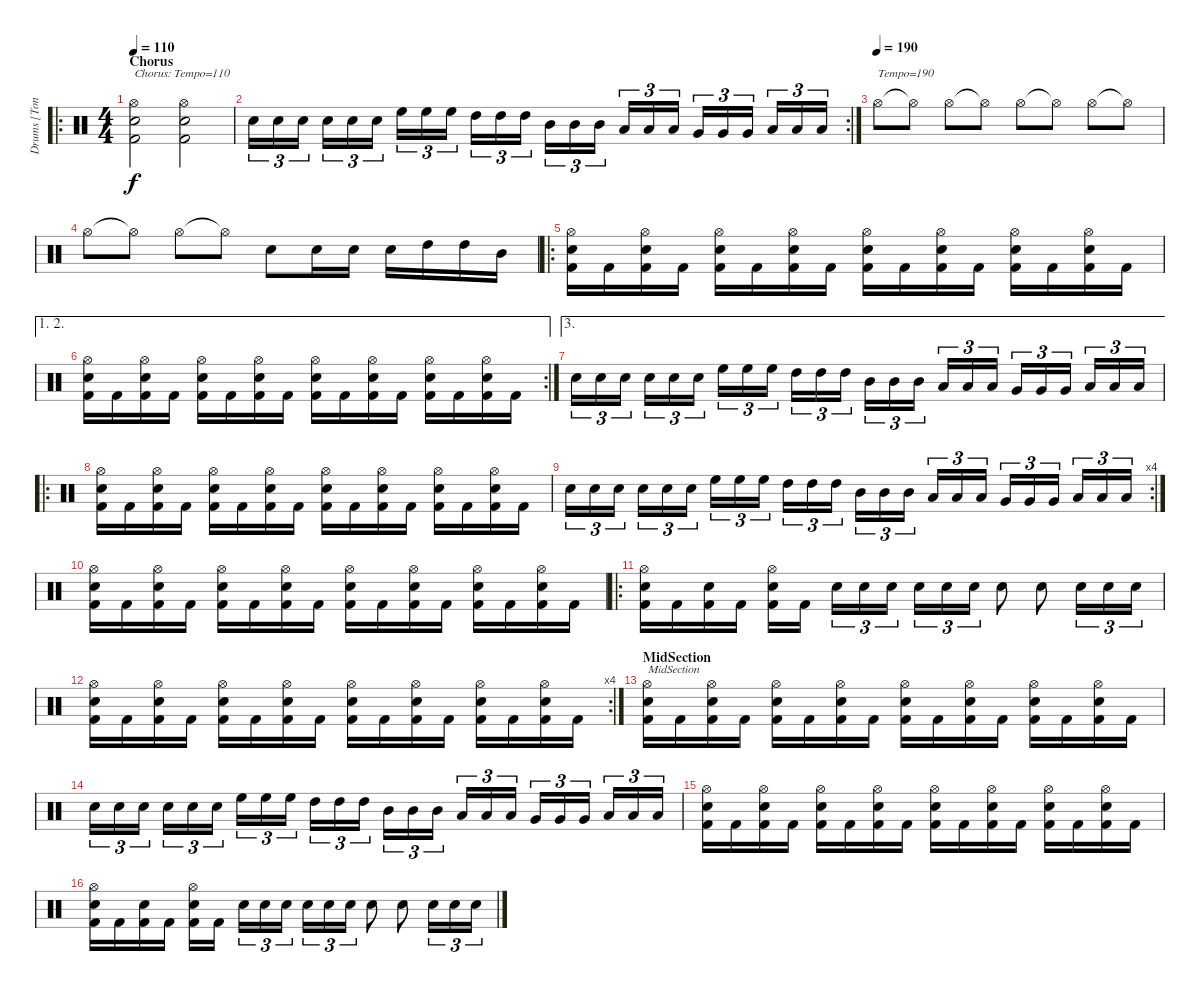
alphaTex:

\track ("Drums [Tony Laureano]" "Drums [Ton") {instrument percussion}
\staff {score}
\articulation defaults
\ro
\ts (4 4)
\section ("" "Chorus")
\tempo 110
\clef neutral
\ks c
("Hi-Hat (open)" "Electric Snare (hit)" "Kick (hit) 2").2{txt "Chorus: Tempo=110" dy f} ("Hi-Hat (open)" "Electric Snare (hit)" "Kick (hit) 2").2 |
\rc 2 "Electric Snare (hit)".16{tu (3 2)} "Electric Snare (hit)".16{tu (3 2)} "Electric Snare (hit)".16{tu (3 2)} "Electric Snare (hit)".16{tu (3 2)} "Electric Snare (hit)".16{tu (3 2)} "Electric Snare (hit)".16{tu (3 2)} "High Floor Tom (hit)".16{tu (3 2)} "High Floor Tom (hit)".16{tu (3 2)} "High Floor Tom (hit)".16{tu (3 2)} "High Tom (hit)".16{tu (3 2)} "High Tom (hit)".16{tu (3 2)} "High Tom (hit)".16{tu (3 2)} "Mid Tom (hit)".16{tu (3 2)} "Mid Tom (hit)".16{tu (3 2)} "Mid Tom (hit)".16{tu (3 2)} "Low Tom (hit)".16{tu (3 2)} "Low Tom (hit)".16{tu (3 2)} "Low Tom (hit)".16{tu (3 2)} "Very Low Tom (hit)".16{tu (3 2)} "Very Low Tom (hit)".16{tu (3 2)} "Very Low Tom (hit)".16{tu (3 2)} "Low Floor Tom (hit)".16{tu (3 2)} "Low Floor Tom (hit)".16{tu (3 2)} "Low Floor Tom (hit)".16{tu (3 2)}
|
\tempo (190)
"Hi-Hat (open)".8{txt "Tempo=190"} "Hi-Hat (open)"{t}.8 "Hi-Hat (open)".8 "Hi-Hat (open)"{t}.8 "Hi-Hat (open)".8 "Hi-Hat (open)"{t}.8 "Hi-Hat (open)".8 "Hi-Hat (open)"{t}.8 |
"Hi-Hat (open)".8 "Hi-Hat (open)"{t}.8 "Hi-Hat (open)".8 "Hi-Hat (open)"{t}.8 "Electric Snare (hit)".8 "Electric Snare (hit)".16 "Electric Snare (hit)".16 "Electric Snare (hit)".16 "High Tom (hit)".16 "High Tom (hit)".16 "Mid Tom (hit)".16 |
\ro
("Hi-Hat (open)" "Electric Snare (hit)" "Kick (hit) 2").16 "Kick (hit) 2".16 ("Hi-Hat (open)" "Electric Snare (hit)" "Kick (hit) 2").16 "Kick (hit) 2".16 ("Hi-Hat (open)" "Electric Snare (hit)" "Kick (hit) 2").16 "Kick (hit) 2".16 ("Hi-Hat (open)" "Electric Snare (hit)" "Kick (hit) 2").16 "Kick (hit) 2".16 ("Hi-Hat (open)" "Electric Snare (hit)" "Kick (hit) 2").16 "Kick (hit) 2".16 ("Hi-Hat (open)" "Electric Snare (hit)" "Kick (hit) 2").16 "Kick (hit) 2".16 ("Hi-Hat (open)" "Electric Snare (hit)" "Kick (hit) 2").16 "Kick (hit) 2".16 ("Hi-Hat (open)" "Electric Snare (hit)" "Kick (hit) 2").16 "Kick (hit) 2".16 |
\ae (1 2)
\rc 2
("Hi-Hat (open)" "Electric Snare (hit)" "Kick (hit) 2").16 "Kick (hit) 2".16 ("Hi-Hat (open)" "Electric Snare (hit)" "Kick (hit) 2").16 "Kick (hit) 2".16 ("Hi-Hat (open)" "Electric Snare (hit)" "Kick (hit) 2").16 "Kick (hit) 2".16 ("Hi-Hat (open)" "Electric Snare (hit)" "Kick (hit) 2").16 "Kick (hit) 2".16 ("Hi-Hat (open)" "Electric Snare (hit)" "Kick (hit) 2").16 "Kick (hit) 2".16 ("Hi-Hat (open)" "Electric Snare (hit)" "Kick (hit) 2").16 "Kick (hit) 2".16 ("Hi-Hat (open)" "Electric Snare (hit)" "Kick (hit) 2").16 "Kick (hit) 2".16 ("Hi-Hat (open)" "Electric Snare (hit)" "Kick (hit) 2").16 "Kick (hit) 2".16 |
\ae 3 "Electric Snare (hit)".16{tu (3 2)} "Electric Snare (hit)".16{tu (3 2)} "Electric Snare (hit)".16{tu (3 2)} "Electric Snare (hit)".16{tu (3 2)} "Electric Snare (hit)".16{tu (3 2)} "Electric Snare (hit)".16{tu (3 2)} "High Floor Tom (hit)".16{tu (3 2)} "High Floor Tom (hit)".16{tu (3 2)} "High Floor Tom (hit)".16{tu (3 2)} "High Tom (hit)".16{tu (3 2)} "High Tom (hit)".16{tu (3 2)} "High Tom (hit)".16{tu (3 2)} "Mid Tom (hit)".16{tu (3 2)} "Mid Tom (hit)".16{tu (3 2)} "Mid Tom (hit)".16{tu (3 2)} "Low Tom (hit)".16{tu (3 2)} "Low Tom (hit)".16{tu (3 2)} "Low Tom (hit)".16{tu (3 2)} "Very Low Tom (hit)".16{tu (3 2)} "Very Low Tom (hit)".16{tu (3 2)} "Very Low Tom (hit)".16{tu (3 2)} "Low Floor Tom (hit)".16{tu (3 2)} "Low Floor Tom (hit)".16{tu (3 2)} "Low Floor Tom (hit)".16{tu (3 2)}
|
\ro
("Hi-Hat (open)" "Electric Snare (hit)" "Kick (hit) 2").16 "Kick (hit) 2".16 ("Hi-Hat (open)" "Electric Snare (hit)" "Kick (hit) 2").16 "Kick (hit) 2".16 ("Hi-Hat (open)" "Electric Snare (hit)" "Kick (hit) 2").16 "Kick (hit) 2".16 ("Hi-Hat (open)" "Electric Snare (hit)" "Kick (hit) 2").16 "Kick (hit) 2".16 ("Hi-Hat (open)" "Electric Snare (hit)" "Kick (hit) 2").16 "Kick (hit) 2".16 ("Hi-Hat (open)" "Electric Snare (hit)" "Kick (hit) 2").16 "Kick (hit) 2".16 ("Hi-Hat (open)" "Electric Snare (hit)" "Kick (hit) 2").16 "Kick (hit) 2".16 ("Hi-Hat (open)" "Electric Snare (hit)" "Kick (hit) 2").16 "Kick (hit) 2".16 |
\rc 4 "Electric Snare (hit)".16{tu (3 2)} "Electric Snare (hit)".16{tu (3 2)} "Electric Snare (hit)".16{tu (3 2)} "Electric Snare (hit)".16{tu (3 2)} "Electric Snare (hit)".16{tu (3 2)} "Electric Snare (hit)".16{tu (3 2)} "High Floor Tom (hit)".16{tu (3 2)} "High Floor Tom (hit)".16{tu (3 2)} "High Floor Tom (hit)".16{tu (3 2)} "High Tom (hit)".16{tu (3 2)} "High Tom (hit)".16{tu (3 2)} "High Tom (hit)".16{tu (3 2)} "Mid Tom (hit)".16{tu (3 2)} "Mid Tom (hit)".16{tu (3 2)} "Mid Tom (hit)".16{tu (3 2)} "Low Tom (hit)".16{tu (3 2)} "Low Tom (hit)".16{tu (3 2)} "Low Tom (hit)".16{tu (3 2)} "Very Low Tom (hit)".16{tu (3 2)} "Very Low Tom (hit)".16{tu (3 2)} "Very Low Tom (hit)".16{tu (3 2)} "Low Floor Tom (hit)".16{tu (3 2)} "Low Floor Tom (hit)".16{tu (3 2)} "Low Floor Tom (hit)".16{tu (3 2)}
|
("Hi-Hat (open)" "Electric Snare (hit)" "Kick (hit) 2").16 "Kick (hit) 2".16 ("Hi-Hat (open)" "Electric Snare (hit)" "Kick (hit) 2").16 "Kick (hit) 2".16 ("Hi-Hat (open)" "Electric Snare (hit)" "Kick (hit) 2").16 "Kick (hit) 2".16 ("Hi-Hat (open)" "Electric Snare (hit)" "Kick (hit) 2").16 "Kick (hit) 2".16 ("Hi-Hat (open)" "Electric Snare (hit)" "Kick (hit) 2").16 "Kick (hit) 2".16 ("Hi-Hat (open)" "Electric Snare (hit)" "Kick (hit) 2").16 "Kick (hit) 2".16 ("Hi-Hat (open)" "Electric Snare (hit)" "Kick (hit) 2").16 "Kick (hit) 2".16 ("Hi-Hat (open)" "Electric Snare (hit)" "Kick (hit) 2").16 "Kick (hit) 2".16 |
\ro
("Hi-Hat (open)" "Electric Snare (hit)" "Kick (hit) 2").16 "Kick (hit) 2".16 ("Electric Snare (hit)" "Kick (hit) 2").16 "Kick (hit) 2".16 ("Hi-Hat (open)" "Electric Snare (hit)" "Kick (hit) 2").16 "Kick (hit) 2".16 "Electric Snare (hit)".16{tu (3 2)} "Electric Snare (hit)".16{tu (3 2)} "Electric Snare (hit)".16{tu (3 2)} "Electric Snare (hit)".16{tu (3 2)} "Electric Snare (hit)".16{tu (3 2)} "Electric Snare (hit)".16{tu (3 2)} "Electric Snare (hit)".8 "Electric Snare (hit)".8 "Electric Snare (hit)".16{tu (3 2)} "Electric Snare (hit)".16{tu (3 2)} "Electric Snare (hit)".16{tu (3 2)} |
\rc 4
("Hi-Hat (open)" "Electric Snare (hit)" "Kick (hit) 2").16 "Kick (hit) 2".16 ("Hi-Hat (open)" "Electric Snare (hit)" "Kick (hit) 2").16 "Kick (hit) 2".16 ("Hi-Hat (open)" "Electric Snare (hit)" "Kick (hit) 2").16 "Kick (hit) 2".16 ("Hi-Hat (open)" "Electric Snare (hit)" "Kick (hit) 2").16 "Kick (hit) 2".16 ("Hi-Hat (open)" "Electric Snare (hit)" "Kick (hit) 2").16 "Kick (hit) 2".16 ("Hi-Hat (open)" "Electric Snare (hit)" "Kick (hit) 2").16 "Kick (hit) 2".16 ("Hi-Hat (open)" "Electric Snare (hit)" "Kick (hit) 2").16 "Kick (hit) 2".16 ("Hi-Hat (open)" "Electric Snare (hit)" "Kick (hit) 2").16 "Kick (hit) 2".16 |
\section ("" "MidSection")
("Hi-Hat (open)" "Electric Snare (hit)" "Kick (hit) 2").16{txt "MidSection"} "Kick (hit) 2".16 ("Hi-Hat (open)" "Electric Snare (hit)" "Kick (hit) 2").16 "Kick (hit) 2".16 ("Hi-Hat (open)" "Electric Snare (hit)" "Kick (hit) 2").16 "Kick (hit) 2".16 ("Hi-Hat (open)" "Electric Snare (hit)" "Kick (hit) 2").16 "Kick (hit) 2".16 ("Hi-Hat (open)" "Electric Snare (hit)" "Kick (hit) 2").16 "Kick (hit) 2".16 ("Hi-Hat (open)" "Electric Snare (hit)" "Kick (hit) 2").16 "Kick (hit) 2".16 ("Hi-Hat (open)" "Electric Snare (hit)" "Kick (hit) 2").16 "Kick (hit) 2".16 ("Hi-Hat (open)" "Electric Snare (hit)" "Kick (hit) 2").16 "Kick (hit) 2".16 |
"Electric Snare (hit)".16{tu (3 2)} "Electric Snare (hit)".16{tu (3 2)} "Electric Snare (hit)".16{tu (3 2)} "Electric Snare (hit)".16{tu (3 2)} "Electric Snare (hit)".16{tu (3 2)} "Electric Snare (hit)".16{tu (3 2)} "High Floor Tom (hit)".16{tu (3 2)} "High Floor Tom (hit)".16{tu (3 2)} "High Floor Tom (hit)".16{tu (3 2)} "High Tom (hit)".16{tu (3 2)} "High Tom (hit)".16{tu (3 2)} "High Tom (hit)".16{tu (3 2)} "Mid Tom (hit)".16{tu (3 2)} "Mid Tom (hit)".16{tu (3 2)} "Mid Tom (hit)".16{tu (3 2)} "Low Tom (hit)".16{tu (3 2)} "Low Tom (hit)".16{tu (3 2)} "Low Tom (hit)".16{tu (3 2)} "Very Low Tom (hit)".16{tu (3 2)} "Very Low Tom (hit)".16{tu (3 2)} "Very Low Tom (hit)".16{tu (3 2)} "Low Floor Tom (hit)".16{tu (3 2)} "Low Floor Tom (hit)".16{tu (3 2)} "Low Floor Tom (hit)".16{tu (3 2)} |
("Hi-Hat (open)" "Electric Snare (hit)" "Kick (hit) 2").16 "Kick (hit) 2".16 ("Hi-Hat (open)" "Electric Snare (hit)" "Kick (hit) 2").16 "Kick (hit) 2".16 ("Hi-Hat (open)" "Electric Snare (hit)" "Kick (hit) 2").16 "Kick (hit) 2".16 ("Hi-Hat (open)" "Electric Snare (hit)" "Kick (hit) 2").16 "Kick (hit) 2".16 ("Hi-Hat (open)" "Electric Snare (hit)" "Kick (hit) 2").16 "Kick (hit) 2".16 ("Hi-Hat (open)" "Electric Snare (hit)" "Kick (hit) 2").16 "Kick (hit) 2".16 ("Hi-Hat (open)" "Electric Snare (hit)" "Kick (hit) 2").16 "Kick (hit) 2".16 ("Hi-Hat (open)" "Electric Snare (hit)" "Kick (hit) 2").16 "Kick (hit) 2".16 |
("Hi-Hat (open)" "Electric Snare (hit)" "Kick (hit) 2").16 "Kick (hit) 2".16 ("Electric Snare (hit)" "Kick (hit) 2").16 "Kick (hit) 2".16 ("Hi-Hat (open)" "Electric Snare (hit)" "Kick (hit) 2").16 "Kick (hit) 2".16 "Electric Snare (hit)".16{tu (3 2)} "Electric Snare (hit)".16{tu (3 2)} "Electric Snare (hit)".16{tu (3 2)} "Electric Snare (hit)".16{tu (3 2)} "Electric Snare (hit)".16{tu (3 2)} "Electric Snare (hit)".16{tu (3 2)} "Electric Snare (hit)".8 "Electric Snare (hit)".8 "Electric Snare (hit)".16{tu (3 2)} "Electric Snare (hit)".16{tu (3 2)} "Electric Snare (hit)".16{tu (3 2)}
